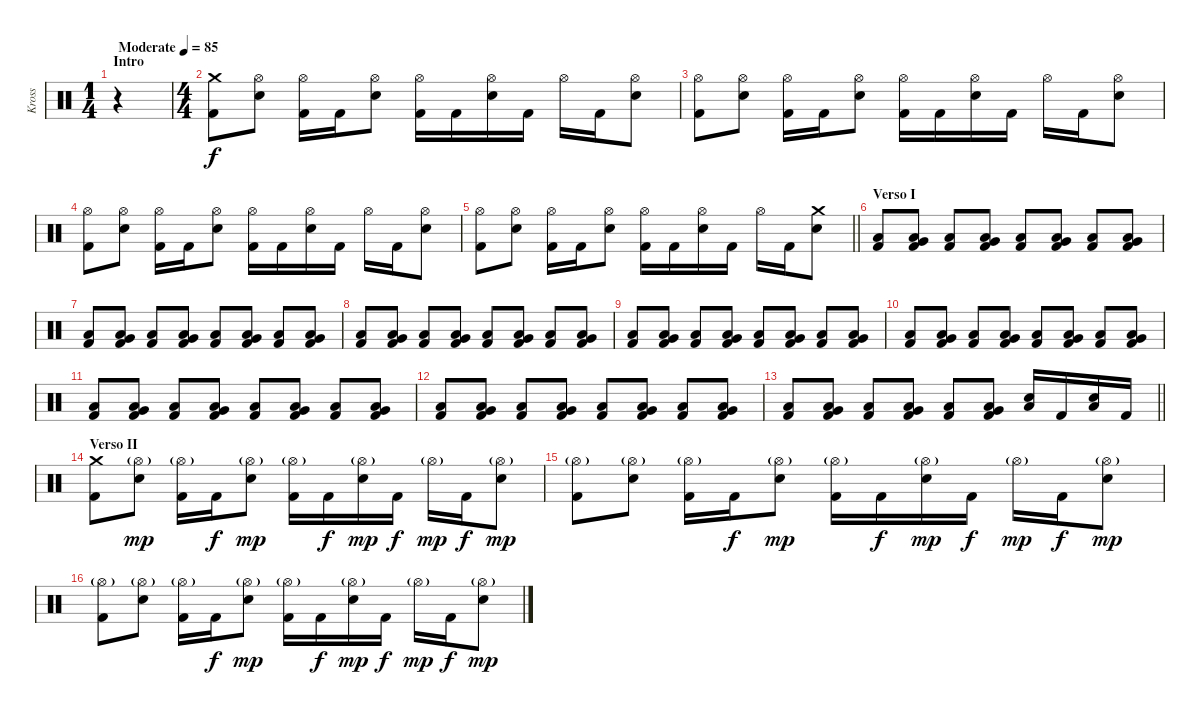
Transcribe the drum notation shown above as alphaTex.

\track ("Kross" "Kross") {instrument percussion}
\staff
\articulation defaults
\ts (1 4)
\section ("" "Intro")
\tempo (85 "Moderate")
\clef neutral
\ks c
r.4{dy f} |
\ts (4 4)
("Crash medium (hit)" "Kick (hit) 2").8 ("Hi-Hat (open)" "Electric Snare (hit)").8 ("Hi-Hat (open)" "Kick (hit) 2").16 "Kick (hit) 2".16 ("Hi-Hat (open)" "Electric Snare (hit)").8 ("Hi-Hat (open)" "Kick (hit) 2").16 "Kick (hit) 2".16 ("Hi-Hat (open)" "Electric Snare (hit)").16 "Kick (hit) 2".16 "Hi-Hat (open)".16 "Kick (hit) 2".16 ("Hi-Hat (open)" "Electric Snare (hit)").8 |
("Hi-Hat (open)" "Kick (hit) 2").8 ("Hi-Hat (open)" "Electric Snare (hit)").8 ("Hi-Hat (open)" "Kick (hit) 2").16 "Kick (hit) 2".16 ("Hi-Hat (open)" "Electric Snare (hit)").8 ("Hi-Hat (open)" "Kick (hit) 2").16 "Kick (hit) 2".16 ("Hi-Hat (open)" "Electric Snare (hit)").16 "Kick (hit) 2".16 "Hi-Hat (open)".16 "Kick (hit) 2".16 ("Hi-Hat (open)" "Electric Snare (hit)").8 |
("Hi-Hat (open)" "Kick (hit) 2").8 ("Hi-Hat (open)" "Electric Snare (hit)").8 ("Hi-Hat (open)" "Kick (hit) 2").16 "Kick (hit) 2".16 ("Hi-Hat (open)" "Electric Snare (hit)").8 ("Hi-Hat (open)" "Kick (hit) 2").16 "Kick (hit) 2".16 ("Hi-Hat (open)" "Electric Snare (hit)").16 "Kick (hit) 2".16 "Hi-Hat (open)".16 "Kick (hit) 2".16 ("Hi-Hat (open)" "Electric Snare (hit)").8 |
\barLineRight lightlight
("Hi-Hat (open)" "Kick (hit) 2").8 ("Hi-Hat (open)" "Electric Snare (hit)").8 ("Hi-Hat (open)" "Kick (hit) 2").16 "Kick (hit) 2".16 ("Hi-Hat (open)" "Electric Snare (hit)").8 ("Hi-Hat (open)" "Kick (hit) 2").16 "Kick (hit) 2".16 ("Hi-Hat (open)" "Electric Snare (hit)").16 "Kick (hit) 2".16 "Hi-Hat (open)".16 "Kick (hit) 2".16 ("Crash medium (hit)" "Electric Snare (hit)").8 |
\section ("" "Verso I")
("Low Floor Tom (hit)" "Kick (hit) 2").8 ("Very Low Tom (hit)" "Low Floor Tom (hit)" "Kick (hit) 2").8 ("Low Floor Tom (hit)" "Kick (hit) 2").8 ("Very Low Tom (hit)" "Low Floor Tom (hit)" "Kick (hit) 2").8 ("Low Floor Tom (hit)" "Kick (hit) 2").8 ("Very Low Tom (hit)" "Low Floor Tom (hit)" "Kick (hit) 2").8 ("Low Floor Tom (hit)" "Kick (hit) 2").8 ("Very Low Tom (hit)" "Low Floor Tom (hit)" "Kick (hit) 2").8 |
("Low Floor Tom (hit)" "Kick (hit) 2").8 ("Very Low Tom (hit)" "Low Floor Tom (hit)" "Kick (hit) 2").8 ("Low Floor Tom (hit)" "Kick (hit) 2").8 ("Very Low Tom (hit)" "Low Floor Tom (hit)" "Kick (hit) 2").8 ("Low Floor Tom (hit)" "Kick (hit) 2").8 ("Very Low Tom (hit)" "Low Floor Tom (hit)" "Kick (hit) 2").8 ("Low Floor Tom (hit)" "Kick (hit) 2").8 ("Very Low Tom (hit)" "Low Floor Tom (hit)" "Kick (hit) 2").8 |
("Low Floor Tom (hit)" "Kick (hit) 2").8 ("Very Low Tom (hit)" "Low Floor Tom (hit)" "Kick (hit) 2").8 ("Low Floor Tom (hit)" "Kick (hit) 2").8 ("Very Low Tom (hit)" "Low Floor Tom (hit)" "Kick (hit) 2").8 ("Low Floor Tom (hit)" "Kick (hit) 2").8 ("Very Low Tom (hit)" "Low Floor Tom (hit)" "Kick (hit) 2").8 ("Low Floor Tom (hit)" "Kick (hit) 2").8 ("Very Low Tom (hit)" "Low Floor Tom (hit)" "Kick (hit) 2").8 |
("Low Floor Tom (hit)" "Kick (hit) 2").8 ("Very Low Tom (hit)" "Low Floor Tom (hit)" "Kick (hit) 2").8 ("Low Floor Tom (hit)" "Kick (hit) 2").8 ("Very Low Tom (hit)" "Low Floor Tom (hit)" "Kick (hit) 2").8 ("Low Floor Tom (hit)" "Kick (hit) 2").8 ("Very Low Tom (hit)" "Low Floor Tom (hit)" "Kick (hit) 2").8 ("Low Floor Tom (hit)" "Kick (hit) 2").8 ("Very Low Tom (hit)" "Low Floor Tom (hit)" "Kick (hit) 2").8 |
("Low Floor Tom (hit)" "Kick (hit) 2").8 ("Very Low Tom (hit)" "Low Floor Tom (hit)" "Kick (hit) 2").8 ("Low Floor Tom (hit)" "Kick (hit) 2").8 ("Very Low Tom (hit)" "Low Floor Tom (hit)" "Kick (hit) 2").8 ("Low Floor Tom (hit)" "Kick (hit) 2").8 ("Very Low Tom (hit)" "Low Floor Tom (hit)" "Kick (hit) 2").8 ("Low Floor Tom (hit)" "Kick (hit) 2").8 ("Very Low Tom (hit)" "Low Floor Tom (hit)" "Kick (hit) 2").8 |
("Low Floor Tom (hit)" "Kick (hit) 2").8 ("Very Low Tom (hit)" "Low Floor Tom (hit)" "Kick (hit) 2").8 ("Low Floor Tom (hit)" "Kick (hit) 2").8 ("Very Low Tom (hit)" "Low Floor Tom (hit)" "Kick (hit) 2").8 ("Low Floor Tom (hit)" "Kick (hit) 2").8 ("Very Low Tom (hit)" "Low Floor Tom (hit)" "Kick (hit) 2").8 ("Low Floor Tom (hit)" "Kick (hit) 2").8 ("Very Low Tom (hit)" "Low Floor Tom (hit)" "Kick (hit) 2").8 |
("Low Floor Tom (hit)" "Kick (hit) 2").8 ("Very Low Tom (hit)" "Low Floor Tom (hit)" "Kick (hit) 2").8 ("Low Floor Tom (hit)" "Kick (hit) 2").8 ("Very Low Tom (hit)" "Low Floor Tom (hit)" "Kick (hit) 2").8 ("Low Floor Tom (hit)" "Kick (hit) 2").8 ("Very Low Tom (hit)" "Low Floor Tom (hit)" "Kick (hit) 2").8 ("Low Floor Tom (hit)" "Kick (hit) 2").8 ("Very Low Tom (hit)" "Low Floor Tom (hit)" "Kick (hit) 2").8 |
\barLineRight lightlight
("Low Floor Tom (hit)" "Kick (hit) 2").8 ("Very Low Tom (hit)" "Low Floor Tom (hit)" "Kick (hit) 2").8 ("Low Floor Tom (hit)" "Kick (hit) 2").8 ("Very Low Tom (hit)" "Low Floor Tom (hit)" "Kick (hit) 2").8 ("Low Floor Tom (hit)" "Kick (hit) 2").8 ("Very Low Tom (hit)" "Low Floor Tom (hit)" "Kick (hit) 2").8 ("Electric Snare (hit)" "Low Floor Tom (hit)").16 "Kick (hit) 2".16 ("Electric Snare (hit)" "Low Floor Tom (hit)").16 "Kick (hit) 2".16 |
\section ("" "Verso II")
("Crash medium (hit)" "Kick (hit) 2").8 ("Hi-Hat (open)"{g} "Electric Snare (hit)").8{dy mp} ("Hi-Hat (open)"{g} "Kick (hit) 2").16 "Kick (hit) 2".16{dy f} ("Hi-Hat (open)"{g} "Electric Snare (hit)").8{dy mp} ("Hi-Hat (open)"{g} "Kick (hit) 2").16 "Kick (hit) 2".16{dy f} ("Hi-Hat (open)"{g} "Electric Snare (hit)").16{dy mp} "Kick (hit) 2".16{dy f} "Hi-Hat (open)"{g}.16{dy mp} "Kick (hit) 2".16{dy f} ("Hi-Hat (open)"{g} "Electric Snare (hit)").8{dy mp} |
("Hi-Hat (open)"{g} "Kick (hit) 2").8 ("Hi-Hat (open)"{g} "Electric Snare (hit)").8 ("Hi-Hat (open)"{g} "Kick (hit) 2").16 "Kick (hit) 2".16{dy f} ("Hi-Hat (open)"{g} "Electric Snare (hit)").8{dy mp} ("Hi-Hat (open)"{g} "Kick (hit) 2").16 "Kick (hit) 2".16{dy f} ("Hi-Hat (open)"{g} "Electric Snare (hit)").16{dy mp} "Kick (hit) 2".16{dy f} "Hi-Hat (open)"{g}.16{dy mp} "Kick (hit) 2".16{dy f} ("Hi-Hat (open)"{g} "Electric Snare (hit)").8{dy mp} |
("Hi-Hat (open)"{g} "Kick (hit) 2").8 ("Hi-Hat (open)"{g} "Electric Snare (hit)").8 ("Hi-Hat (open)"{g} "Kick (hit) 2").16 "Kick (hit) 2".16{dy f} ("Hi-Hat (open)"{g} "Electric Snare (hit)").8{dy mp} ("Hi-Hat (open)"{g} "Kick (hit) 2").16 "Kick (hit) 2".16{dy f} ("Hi-Hat (open)"{g} "Electric Snare (hit)").16{dy mp} "Kick (hit) 2".16{dy f} "Hi-Hat (open)"{g}.16{dy mp} "Kick (hit) 2".16{dy f} ("Hi-Hat (open)"{g} "Electric Snare (hit)").8{dy mp}
